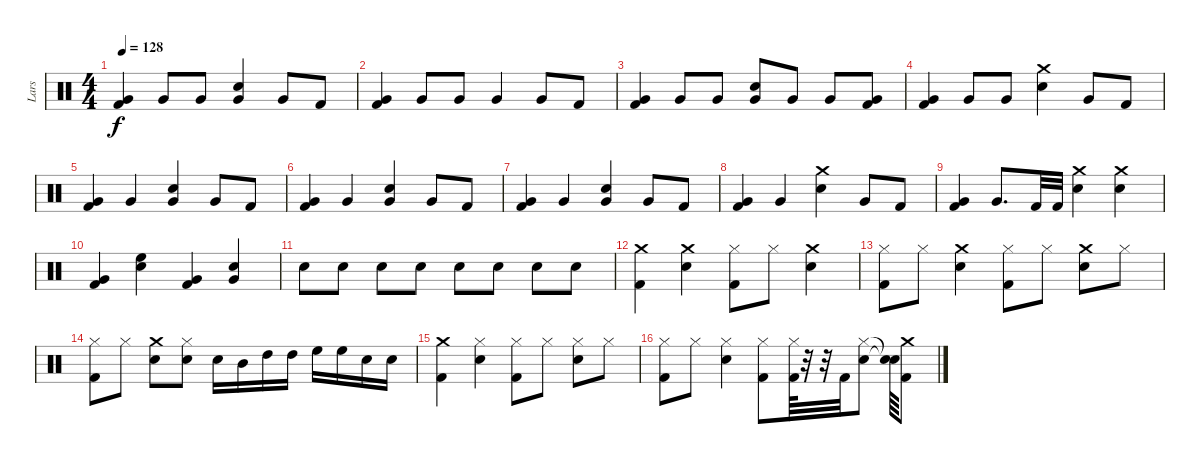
\track ("Lars" "Lars") {instrument percussion}
\staff {score}
\articulation defaults
\ts (4 4)
\tempo 128
\clef neutral
\ks c
("Kick (hit) 2" "Very Low Tom (hit)").4{dy f} "Very Low Tom (hit)".8 "Very Low Tom (hit)".8 ("Snare (hit) 2" "Very Low Tom (hit)").4 "Very Low Tom (hit)".8 "Kick (hit) 2".8 |
("Very Low Tom (hit)" "Kick (hit) 2").4 "Very Low Tom (hit)".8 "Very Low Tom (hit)".8 "Very Low Tom (hit)".4 "Very Low Tom (hit)".8 "Kick (hit) 2".8 |
("Very Low Tom (hit)" "Kick (hit) 2").4 "Very Low Tom (hit)".8 "Very Low Tom (hit)".8 ("Snare (hit) 2" "Very Low Tom (hit)").8 "Very Low Tom (hit)".8 "Very Low Tom (hit)".8 ("Kick (hit) 2" "Very Low Tom (hit)").8 |
("Kick (hit) 2" "Very Low Tom (hit)").4 "Very Low Tom (hit)".8 "Very Low Tom (hit)".8 ("Crash medium (hit)" "Snare (hit) 2").4 "Very Low Tom (hit)".8 "Kick (hit) 2".8 |
("Kick (hit) 2" "Very Low Tom (hit)").4 "Very Low Tom (hit)".4 ("Snare (hit) 2" "Very Low Tom (hit)").4 "Very Low Tom (hit)".8 "Kick (hit) 2".8 |
("Kick (hit) 2" "Very Low Tom (hit)").4 "Very Low Tom (hit)".4 ("Snare (hit) 2" "Very Low Tom (hit)").4 "Very Low Tom (hit)".8 "Kick (hit) 2".8 |
("Kick (hit) 2" "Very Low Tom (hit)").4 "Very Low Tom (hit)".4 ("Snare (hit) 2" "Very Low Tom (hit)").4 "Very Low Tom (hit)".8 "Kick (hit) 2".8 |
("Kick (hit) 2" "Very Low Tom (hit)").4 "Very Low Tom (hit)".4 ("Crash medium (hit)" "Snare (hit) 2").4 "Very Low Tom (hit)".8 "Kick (hit) 2".8 |
("Very Low Tom (hit)" "Kick (hit) 2").4 "Very Low Tom (hit)".8{d} "Kick (hit) 2".32 "Kick (hit) 2".32 ("Snare (hit) 2" "Crash medium (hit)").4 ("Snare (hit) 2" "Crash medium (hit)").4 |
("Very Low Tom (hit)" "Kick (hit) 2").4 ("High Floor Tom (hit)" "Snare (hit) 2").4 ("Very Low Tom (hit)" "Kick (hit) 2").4 ("Snare (hit) 2" "Very Low Tom (hit)").4 |
"Snare (hit) 2".8 "Snare (hit) 2".8 "Snare (hit) 2".8 "Snare (hit) 2".8 "Snare (hit) 2".8 "Snare (hit) 2".8 "Snare (hit) 2".8 "Snare (hit) 2".8 |
("Kick (hit) 2" "Crash medium (hit)").4 ("Snare (hit) 2" "Crash medium (hit)").4 ("Kick (hit) 2" "Hi-Hat (closed)").8 "Hi-Hat (closed)".8 ("Crash medium (hit)" "Snare (hit) 2").4 |
("Kick (hit) 2" "Hi-Hat (closed)").8 "Hi-Hat (closed)".8 ("Crash medium (hit)" "Snare (hit) 2").4 ("Kick (hit) 2" "Hi-Hat (closed)").8 "Hi-Hat (closed)".8 ("Snare (hit) 2" "Crash medium (hit)").8 "Hi-Hat (closed)".8 |
("Hi-Hat (closed)" "Kick (hit) 2").8 "Hi-Hat (closed)".8 ("Crash medium (hit)" "Snare (hit) 2").8 ("Snare (hit) 2" "Hi-Hat (closed)").8 "Snare (hit) 2".16 "Mid Tom (hit)".16 "High Tom (hit)".16 "High Tom (hit)".16 "High Floor Tom (hit)".16 "High Floor Tom (hit)".16 "Snare (hit) 2".16 "Snare (hit) 2".16 |
("Kick (hit) 2" "Crash medium (hit)").4 ("Hi-Hat (closed)" "Snare (hit) 2").4 ("Hi-Hat (closed)" "Kick (hit) 2").8 "Hi-Hat (closed)".8 ("Hi-Hat (closed)" "Snare (hit) 2").8 "Hi-Hat (closed)".8 |
("Kick (hit) 2" "Hi-Hat (closed)").8 "Hi-Hat (closed)".8 ("Hi-Hat (closed)" "Snare (hit) 2").4 ("Kick (hit) 2" "Hi-Hat (closed)").8 ("Kick (hit) 2" "Hi-Hat (closed)").64 r.32 r.32 "Kick (hit) 2".32 ("Snare (hit) 2" "Hi-Hat (closed)").8 ("Snare (hit)"{t} "Snare (hit)"{t}).64 ("Kick (hit) 2" "Crash medium (hit)").8
